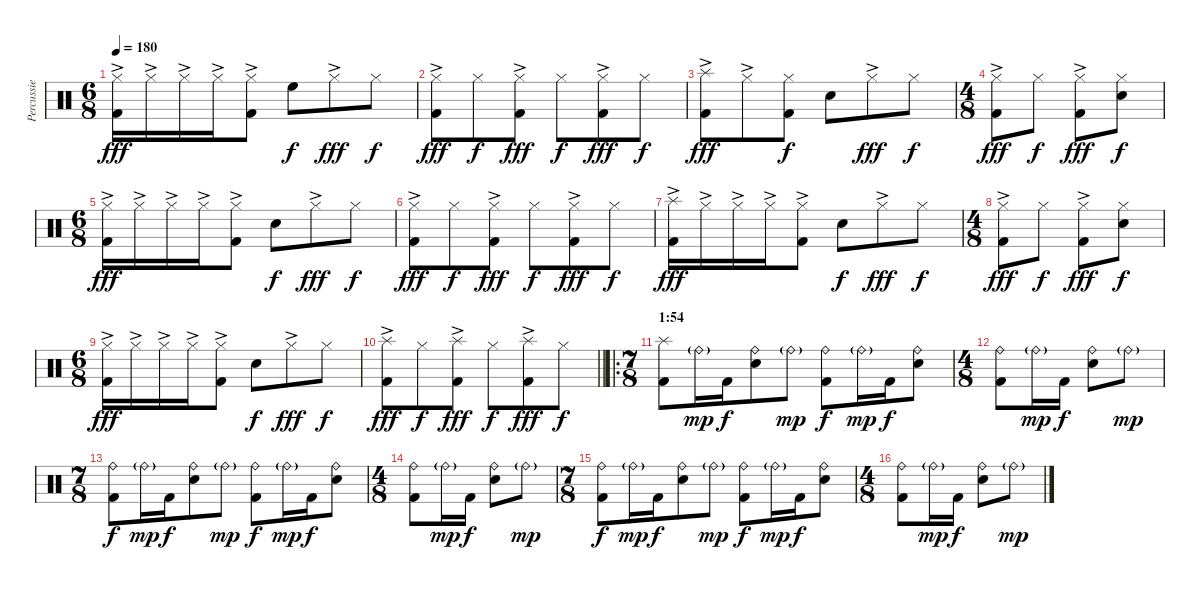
\track ("Percussie" "Percussie") {instrument percussion}
\staff {score}
\articulation defaults
\ts (6 8)
\tempo 180
\clef neutral
\ks c
("Hi-Hat (closed)"{ac} "Kick (hit) 2").16{dy fff} "Hi-Hat (closed)"{ac}.16 "Hi-Hat (closed)"{ac}.16 "Hi-Hat (closed)"{ac}.16 ("Hi-Hat (closed)"{ac} "Kick (hit) 2").8 "High Floor Tom (hit)".8{dy f} "Hi-Hat (closed)"{ac}.8{dy fff} "Hi-Hat (closed)".8{dy f} |
("Hi-Hat (closed)"{ac} "Kick (hit) 2").8{dy fff} "Hi-Hat (closed)".8{dy f} ("Hi-Hat (closed)"{ac} "Kick (hit) 2").8{dy fff} "Hi-Hat (closed)".8{dy f} ("Hi-Hat (closed)"{ac} "Kick (hit) 2").8{dy fff} "Hi-Hat (closed)".8{dy f} |
("Splash (hit)"{ac} "Kick (hit) 2").8{dy fff} "Hi-Hat (closed)"{ac}.8 ("Hi-Hat (closed)" "Kick (hit) 2").8{dy f} "Snare (hit) 2".8 "Hi-Hat (closed)"{ac}.8{dy fff} "Hi-Hat (closed)".8{dy f} |
\ts (4 8)
("Hi-Hat (closed)"{ac} "Kick (hit) 2").8{dy fff} "Hi-Hat (closed)".8{dy f} ("Hi-Hat (closed)"{ac} "Kick (hit) 2").8{dy fff} ("Hi-Hat (closed)" "Snare (hit) 2").8{dy f} |
\ts (6 8)
("Hi-Hat (closed)"{ac} "Kick (hit) 2").16{dy fff} "Hi-Hat (closed)"{ac}.16 "Hi-Hat (closed)"{ac}.16 "Hi-Hat (closed)"{ac}.16 ("Hi-Hat (closed)"{ac} "Kick (hit) 2").8 "Snare (hit) 2".8{dy f} "Hi-Hat (closed)"{ac}.8{dy fff} "Hi-Hat (closed)".8{dy f} |
("Hi-Hat (closed)"{ac} "Kick (hit) 2").8{dy fff} "Hi-Hat (closed)".8{dy f} ("Hi-Hat (closed)"{ac} "Kick (hit) 2").8{dy fff} "Hi-Hat (closed)".8{dy f} ("Hi-Hat (closed)"{ac} "Kick (hit) 2").8{dy fff} "Hi-Hat (closed)".8{dy f} |
("Splash (hit)"{ac} "Kick (hit) 2").16{dy fff} "Hi-Hat (closed)"{ac}.16 "Hi-Hat (closed)"{ac}.16 "Hi-Hat (closed)"{ac}.16 ("Hi-Hat (closed)"{ac} "Kick (hit) 2").8 "Snare (hit) 2".8{dy f} "Hi-Hat (closed)"{ac}.8{dy fff} "Hi-Hat (closed)".8{dy f} |
\ts (4 8)
("Hi-Hat (closed)"{ac} "Kick (hit) 2").8{dy fff} "Hi-Hat (closed)".8{dy f} ("Hi-Hat (closed)"{ac} "Kick (hit) 2").8{dy fff} ("Hi-Hat (closed)" "Snare (hit) 2").8{dy f} |
\ts (6 8)
("Hi-Hat (closed)"{ac} "Kick (hit) 2").16{dy fff} "Hi-Hat (closed)"{ac}.16 "Hi-Hat (closed)"{ac}.16 "Hi-Hat (closed)"{ac}.16 ("Hi-Hat (closed)"{ac} "Kick (hit) 2").8 "Snare (hit) 2".8{dy f} "Hi-Hat (closed)"{ac}.8{dy fff} "Hi-Hat (closed)".8{dy f} |
\barLineRight lightlight
("Splash (hit)"{ac} "Kick (hit) 2").8{dy fff} "Hi-Hat (closed)".8{dy f} ("Splash (hit)"{ac} "Kick (hit) 2").8{dy fff} "Hi-Hat (closed)".8{dy f} ("Splash (hit)"{ac} "Kick (hit) 2").8{dy fff} "Hi-Hat (closed)".8{dy f} |
\ro
\ts (7 8)
\section ("" "1:54")
("Splash (hit)" "Kick (hit) 2").8 "Ride (bell)"{g}.16{dy mp} "Kick (hit) 2".16{dy f} ("Ride (bell)" "Snare (hit) 2").8 "Ride (bell)"{g}.8{dy mp} ("Ride (bell)" "Kick (hit) 2").8{dy f} "Ride (bell)"{g}.16{dy mp} "Kick (hit) 2".16{dy f} ("Ride (bell)" "Snare (hit) 2").8 |
\ts (4 8)
("Ride (bell)" "Kick (hit) 2").8 "Ride (bell)"{g}.16{dy mp} "Kick (hit) 2".16{dy f} ("Ride (bell)" "Snare (hit) 2").8 "Ride (bell)"{g}.8{dy mp} |
\ts (7 8)
("Ride (bell)" "Kick (hit) 2").8{dy f} "Ride (bell)"{g}.16{dy mp} "Kick (hit) 2".16{dy f} ("Ride (bell)" "Snare (hit) 2").8 "Ride (bell)"{g}.8{dy mp} ("Ride (bell)" "Kick (hit) 2").8{dy f} "Ride (bell)"{g}.16{dy mp} "Kick (hit) 2".16{dy f} ("Ride (bell)" "Snare (hit) 2").8 |
\ts (4 8)
("Ride (bell)" "Kick (hit) 2").8 "Ride (bell)"{g}.16{dy mp} "Kick (hit) 2".16{dy f} ("Ride (bell)" "Snare (hit) 2").8 "Ride (bell)"{g}.8{dy mp} |
\ts (7 8)
("Ride (bell)" "Kick (hit) 2").8{dy f} "Ride (bell)"{g}.16{dy mp} "Kick (hit) 2".16{dy f} ("Ride (bell)" "Snare (hit) 2").8 "Ride (bell)"{g}.8{dy mp} ("Ride (bell)" "Kick (hit) 2").8{dy f} "Ride (bell)"{g}.16{dy mp} "Kick (hit) 2".16{dy f} ("Ride (bell)" "Snare (hit) 2").8 |
\ts (4 8)
("Ride (bell)" "Kick (hit) 2").8 "Ride (bell)"{g}.16{dy mp} "Kick (hit) 2".16{dy f} ("Ride (bell)" "Snare (hit) 2").8 "Ride (bell)"{g}.8{dy mp}
